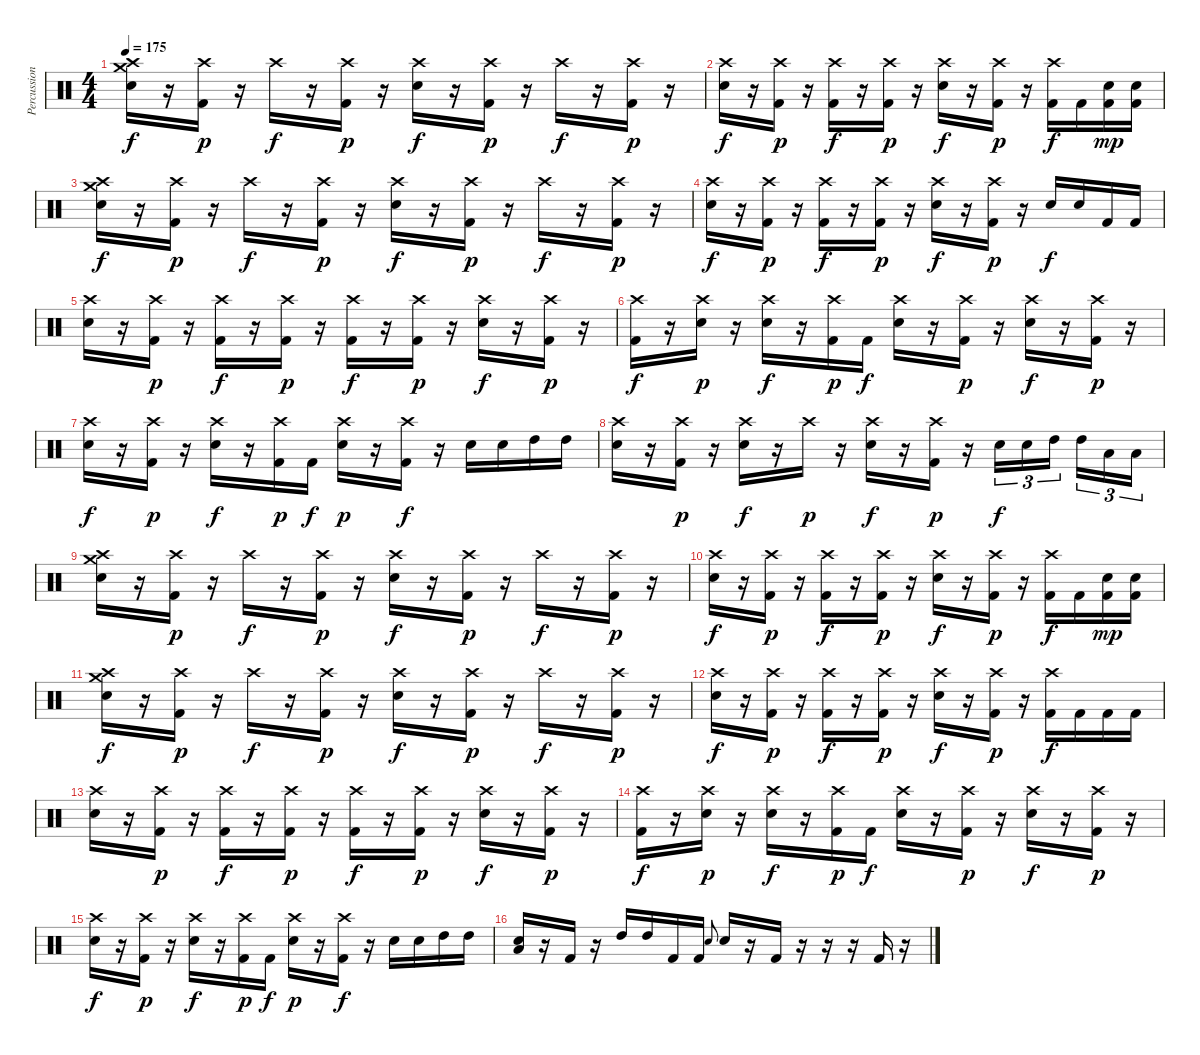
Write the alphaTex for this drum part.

\track ("Percussion" "Percussion") {instrument percussion}
\staff {score}
\articulation defaults
\ts (4 4)
\tempo 175
\clef neutral
\ks c
("Crash medium (hit)" "Crash high (hit)" "Electric Snare (hit)").16{dy f} r.16 ("Crash high (hit)" "Kick (hit) 2").16{dy p} r.16 "Crash high (hit)".16{dy f} r.16 ("Crash high (hit)" "Kick (hit) 2").16{dy p} r.16 ("Crash high (hit)" "Electric Snare (hit)").16{dy f} r.16 ("Crash high (hit)" "Kick (hit) 2").16{dy p} r.16 "Crash high (hit)".16{dy f} r.16 ("Crash high (hit)" "Kick (hit) 2").16{dy p} r.16 |
("Crash high (hit)" "Electric Snare (hit)").16{dy f} r.16 ("Crash high (hit)" "Kick (hit) 2").16{dy p} r.16 ("Crash high (hit)" "Kick (hit) 2").16{dy f} r.16 ("Crash high (hit)" "Kick (hit) 2").16{dy p} r.16 ("Crash high (hit)" "Electric Snare (hit)").16{dy f} r.16 ("Crash high (hit)" "Kick (hit) 2").16{dy p} r.16 ("Crash high (hit)" "Kick (hit) 2").16{dy f} "Kick (hit) 2".16 ("Electric Snare (hit)" "Kick (hit) 2").16{dy mp} ("Electric Snare (hit)" "Kick (hit) 2").16 |
("Crash medium (hit)" "Crash high (hit)" "Electric Snare (hit)").16{dy f} r.16 ("Crash high (hit)" "Kick (hit) 2").16{dy p} r.16 "Crash high (hit)".16{dy f} r.16 ("Crash high (hit)" "Kick (hit) 2").16{dy p} r.16 ("Crash high (hit)" "Electric Snare (hit)").16{dy f} r.16 ("Crash high (hit)" "Kick (hit) 2").16{dy p} r.16 "Crash high (hit)".16{dy f} r.16 ("Crash high (hit)" "Kick (hit) 2").16{dy p} r.16 |
("Crash high (hit)" "Electric Snare (hit)").16{dy f} r.16 ("Crash high (hit)" "Kick (hit) 2").16{dy p} r.16 ("Crash high (hit)" "Kick (hit) 2").16{dy f} r.16 ("Crash high (hit)" "Kick (hit) 2").16{dy p} r.16 ("Crash high (hit)" "Electric Snare (hit)").16{dy f} r.16 ("Crash high (hit)" "Kick (hit) 2").16{dy p} r.16 "Electric Snare (hit)".16{dy f} "Electric Snare (hit)".16 "Kick (hit) 2".16 "Kick (hit) 2".16 |
("Crash high (hit)" "Electric Snare (hit)").16 r.16 ("Crash high (hit)" "Kick (hit) 2").16{dy p} r.16 ("Crash high (hit)" "Kick (hit) 2").16{dy f} r.16 ("Crash high (hit)" "Kick (hit) 2").16{dy p} r.16 ("Crash high (hit)" "Kick (hit) 2").16{dy f} r.16 ("Crash high (hit)" "Kick (hit) 2").16{dy p} r.16 ("Crash high (hit)" "Electric Snare (hit)").16{dy f} r.16 ("Crash high (hit)" "Kick (hit) 2").16{dy p} r.16 |
("Crash high (hit)" "Kick (hit) 2").16{dy f} r.16 ("Crash high (hit)" "Electric Snare (hit)").16{dy p} r.16 ("Crash high (hit)" "Electric Snare (hit)").16{dy f} r.16 ("Crash high (hit)" "Kick (hit) 2").16{dy p} "Kick (hit) 2".16{dy f} ("Crash high (hit)" "Electric Snare (hit)").16 r.16 ("Crash high (hit)" "Kick (hit) 2").16{dy p} r.16 ("Crash high (hit)" "Electric Snare (hit)").16{dy f} r.16 ("Crash high (hit)" "Kick (hit) 2").16{dy p} r.16 |
("Crash high (hit)" "Electric Snare (hit)").16{dy f} r.16 ("Crash high (hit)" "Kick (hit) 2").16{dy p} r.16 ("Crash high (hit)" "Electric Snare (hit)").16{dy f} r.16 ("Crash high (hit)" "Kick (hit) 2").16{dy p} "Kick (hit) 2".16{dy f} ("Crash high (hit)" "Electric Snare (hit)").16{dy p} r.16 ("Crash high (hit)" "Kick (hit) 2").16{dy f} r.16 "Electric Snare (hit)".16 "Electric Snare (hit)".16 "High Tom (hit)".16 "High Tom (hit)".16 |
("Crash high (hit)" "Electric Snare (hit)").16 r.16 ("Crash high (hit)" "Kick (hit) 2").16{dy p} r.16 ("Crash high (hit)" "Electric Snare (hit)").16{dy f} r.16 "Crash high (hit)".16{dy p} r.16 ("Crash high (hit)" "Electric Snare (hit)").16{dy f} r.16 ("Crash high (hit)" "Kick (hit) 2").16{dy p} r.16 "Electric Snare (hit)".16{tu (3 2) dy f} "Electric Snare (hit)".16{tu (3 2)} "High Tom (hit)".16{tu (3 2) beam splitsecondary} "High Tom (hit)".16{tu (3 2)} "Low Floor Tom (hit)".16{tu (3 2)} "Low Floor Tom (hit)".16{tu (3 2)} |
("Crash medium (hit)" "Crash high (hit)" "Electric Snare (hit)").16 r.16 ("Crash high (hit)" "Kick (hit) 2").16{dy p} r.16 "Crash high (hit)".16{dy f} r.16 ("Crash high (hit)" "Kick (hit) 2").16{dy p} r.16 ("Crash high (hit)" "Electric Snare (hit)").16{dy f} r.16 ("Crash high (hit)" "Kick (hit) 2").16{dy p} r.16 "Crash high (hit)".16{dy f} r.16 ("Crash high (hit)" "Kick (hit) 2").16{dy p} r.16 |
("Crash high (hit)" "Electric Snare (hit)").16{dy f} r.16 ("Crash high (hit)" "Kick (hit) 2").16{dy p} r.16 ("Crash high (hit)" "Kick (hit) 2").16{dy f} r.16 ("Crash high (hit)" "Kick (hit) 2").16{dy p} r.16 ("Crash high (hit)" "Electric Snare (hit)").16{dy f} r.16 ("Crash high (hit)" "Kick (hit) 2").16{dy p} r.16 ("Crash high (hit)" "Kick (hit) 2").16{dy f} "Kick (hit) 2".16 ("Electric Snare (hit)" "Kick (hit) 2").16{dy mp} ("Electric Snare (hit)" "Kick (hit) 2").16 |
("Crash medium (hit)" "Crash high (hit)" "Electric Snare (hit)").16{dy f} r.16 ("Crash high (hit)" "Kick (hit) 2").16{dy p} r.16 "Crash high (hit)".16{dy f} r.16 ("Crash high (hit)" "Kick (hit) 2").16{dy p} r.16 ("Crash high (hit)" "Electric Snare (hit)").16{dy f} r.16 ("Crash high (hit)" "Kick (hit) 2").16{dy p} r.16 "Crash high (hit)".16{dy f} r.16 ("Crash high (hit)" "Kick (hit) 2").16{dy p} r.16 |
("Crash high (hit)" "Electric Snare (hit)").16{dy f} r.16 ("Crash high (hit)" "Kick (hit) 2").16{dy p} r.16 ("Crash high (hit)" "Kick (hit) 2").16{dy f} r.16 ("Crash high (hit)" "Kick (hit) 2").16{dy p} r.16 ("Crash high (hit)" "Electric Snare (hit)").16{dy f} r.16 ("Crash high (hit)" "Kick (hit) 2").16{dy p} r.16 ("Crash high (hit)" "Kick (hit) 2").16{dy f} "Kick (hit) 2".16 "Kick (hit) 2".16 "Kick (hit) 2".16 |
("Crash high (hit)" "Electric Snare (hit)").16 r.16 ("Crash high (hit)" "Kick (hit) 2").16{dy p} r.16 ("Crash high (hit)" "Kick (hit) 2").16{dy f} r.16 ("Crash high (hit)" "Kick (hit) 2").16{dy p} r.16 ("Crash high (hit)" "Kick (hit) 2").16{dy f} r.16 ("Crash high (hit)" "Kick (hit) 2").16{dy p} r.16 ("Crash high (hit)" "Electric Snare (hit)").16{dy f} r.16 ("Crash high (hit)" "Kick (hit) 2").16{dy p} r.16 |
("Crash high (hit)" "Kick (hit) 2").16{dy f} r.16 ("Crash high (hit)" "Electric Snare (hit)").16{dy p} r.16 ("Crash high (hit)" "Electric Snare (hit)").16{dy f} r.16 ("Crash high (hit)" "Kick (hit) 2").16{dy p} "Kick (hit) 2".16{dy f} ("Crash high (hit)" "Electric Snare (hit)").16 r.16 ("Crash high (hit)" "Kick (hit) 2").16{dy p} r.16 ("Crash high (hit)" "Electric Snare (hit)").16{dy f} r.16 ("Crash high (hit)" "Kick (hit) 2").16{dy p} r.16 |
("Crash high (hit)" "Electric Snare (hit)").16{dy f} r.16 ("Crash high (hit)" "Kick (hit) 2").16{dy p} r.16 ("Crash high (hit)" "Electric Snare (hit)").16{dy f} r.16 ("Crash high (hit)" "Kick (hit) 2").16{dy p} "Kick (hit) 2".16{dy f} ("Crash high (hit)" "Electric Snare (hit)").16{dy p} r.16 ("Crash high (hit)" "Kick (hit) 2").16{dy f} r.16 "Electric Snare (hit)".16 "Electric Snare (hit)".16 "High Tom (hit)".16 "High Tom (hit)".16 |
("Low Floor Tom (hit)" "Electric Snare (hit)").16 r.16 "Kick (hit) 2".16 r.16 "High Tom (hit)".16 "High Tom (hit)".16 "Kick (hit) 2".16 "Kick (hit) 2".16 "Electric Snare (hit)".8{gr onbeat} "Electric Snare (hit)".16 r.16 "Kick (hit) 2".16 r.16 r.16 r.16 "Kick (hit) 2".16 r.16
